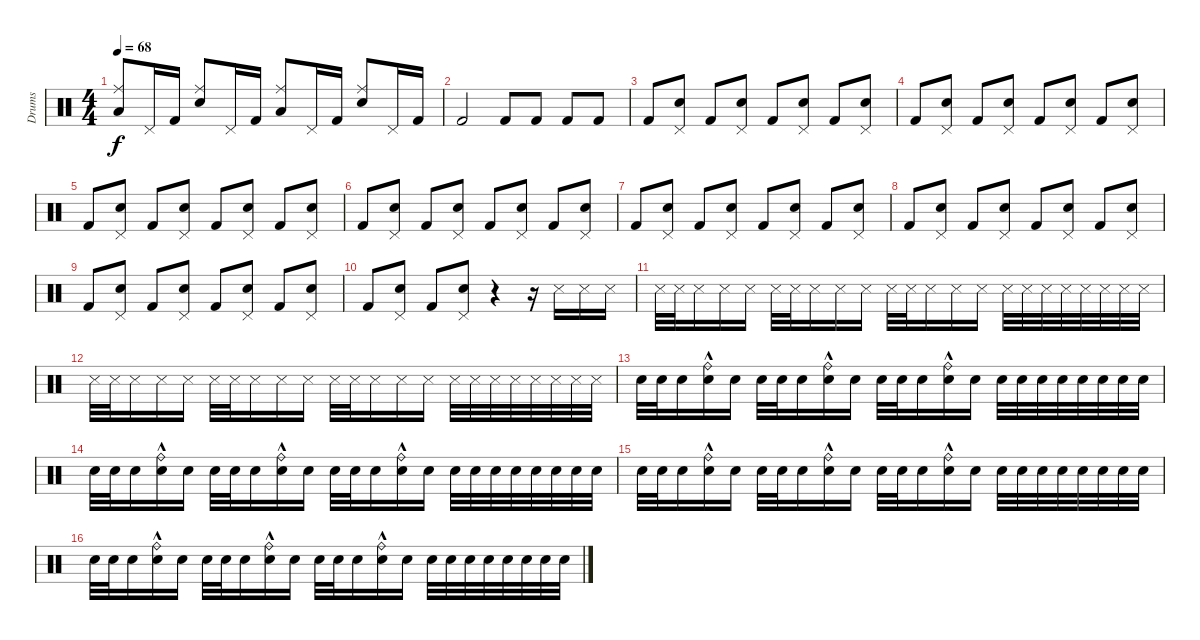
\track ("Drums" "Drums") {instrument percussion}
\staff {score}
\articulation defaults
\ts (4 4)
\tempo 68
\clef neutral
\ks c
("Low Tom (hit)" "Ride (middle)").8{dy f} "Pedal Hi-Hat (hit)".16 "Kick (hit) 2".16 ("Electric Snare (hit)" "Ride (middle)").8 "Pedal Hi-Hat (hit)".16{beam merge} "Kick (hit) 2".16 ("Low Tom (hit)" "Ride (middle)").8 "Pedal Hi-Hat (hit)".16 "Kick (hit) 2".16 ("Electric Snare (hit)" "Ride (middle)").8 "Pedal Hi-Hat (hit)".16{beam merge} "Kick (hit) 2".16 |
"Kick (hit) 2".2 "Kick (hit) 2".8 "Kick (hit) 2".8 "Kick (hit) 2".8 "Kick (hit) 2".8 |
"Kick (hit) 2".8 ("Snare (hit) 2" "Pedal Hi-Hat (hit)").8 "Kick (hit) 2".8 ("Snare (hit) 2" "Pedal Hi-Hat (hit)").8 "Kick (hit) 2".8 ("Snare (hit) 2" "Pedal Hi-Hat (hit)").8 "Kick (hit) 2".8 ("Snare (hit) 2" "Pedal Hi-Hat (hit)").8 |
"Kick (hit) 2".8 ("Snare (hit) 2" "Pedal Hi-Hat (hit)").8 "Kick (hit) 2".8 ("Snare (hit) 2" "Pedal Hi-Hat (hit)").8 "Kick (hit) 2".8 ("Snare (hit) 2" "Pedal Hi-Hat (hit)").8 "Kick (hit) 2".8 ("Snare (hit) 2" "Pedal Hi-Hat (hit)").8 |
"Kick (hit) 2".8 ("Snare (hit) 2" "Pedal Hi-Hat (hit)").8 "Kick (hit) 2".8 ("Snare (hit) 2" "Pedal Hi-Hat (hit)").8 "Kick (hit) 2".8 ("Snare (hit) 2" "Pedal Hi-Hat (hit)").8 "Kick (hit) 2".8 ("Snare (hit) 2" "Pedal Hi-Hat (hit)").8 |
"Kick (hit) 2".8 ("Snare (hit) 2" "Pedal Hi-Hat (hit)").8 "Kick (hit) 2".8 ("Snare (hit) 2" "Pedal Hi-Hat (hit)").8 "Kick (hit) 2".8 ("Snare (hit) 2" "Pedal Hi-Hat (hit)").8 "Kick (hit) 2".8 ("Snare (hit) 2" "Pedal Hi-Hat (hit)").8 |
"Kick (hit) 2".8 ("Snare (hit) 2" "Pedal Hi-Hat (hit)").8 "Kick (hit) 2".8 ("Snare (hit) 2" "Pedal Hi-Hat (hit)").8 "Kick (hit) 2".8 ("Snare (hit) 2" "Pedal Hi-Hat (hit)").8 "Kick (hit) 2".8 ("Snare (hit) 2" "Pedal Hi-Hat (hit)").8 |
"Kick (hit) 2".8 ("Snare (hit) 2" "Pedal Hi-Hat (hit)").8 "Kick (hit) 2".8 ("Snare (hit) 2" "Pedal Hi-Hat (hit)").8 "Kick (hit) 2".8 ("Snare (hit) 2" "Pedal Hi-Hat (hit)").8 "Kick (hit) 2".8 ("Snare (hit) 2" "Pedal Hi-Hat (hit)").8 |
"Kick (hit) 2".8 ("Snare (hit) 2" "Pedal Hi-Hat (hit)").8 "Kick (hit) 2".8 ("Snare (hit) 2" "Pedal Hi-Hat (hit)").8 "Kick (hit) 2".8 ("Snare (hit) 2" "Pedal Hi-Hat (hit)").8 "Kick (hit) 2".8 ("Snare (hit) 2" "Pedal Hi-Hat (hit)").8 |
"Kick (hit) 2".8 ("Snare (hit) 2" "Pedal Hi-Hat (hit)").8 "Kick (hit) 2".8 ("Snare (hit) 2" "Pedal Hi-Hat (hit)").8 r.4 r.16 "Snare (side stick) 3".16 "Snare (side stick) 3".16 "Snare (side stick) 3".16 |
"Snare (side stick) 3".32 "Snare (side stick) 3".32 "Snare (side stick) 3".16 "Snare (side stick) 3".16 "Snare (side stick) 3".16 "Snare (side stick) 3".32 "Snare (side stick) 3".32 "Snare (side stick) 3".16 "Snare (side stick) 3".16 "Snare (side stick) 3".16 "Snare (side stick) 3".32 "Snare (side stick) 3".32 "Snare (side stick) 3".16 "Snare (side stick) 3".16 "Snare (side stick) 3".16 "Snare (side stick) 3".32 "Snare (side stick) 3".32 "Snare (side stick) 3".32 "Snare (side stick) 3".32 "Snare (side stick) 3".32 "Snare (side stick) 3".32 "Snare (side stick) 3".32 "Snare (side stick) 3".32 |
"Snare (side stick) 3".32 "Snare (side stick) 3".32 "Snare (side stick) 3".16 "Snare (side stick) 3".16 "Snare (side stick) 3".16 "Snare (side stick) 3".32 "Snare (side stick) 3".32 "Snare (side stick) 3".16 "Snare (side stick) 3".16 "Snare (side stick) 3".16 "Snare (side stick) 3".32 "Snare (side stick) 3".32 "Snare (side stick) 3".16 "Snare (side stick) 3".16 "Snare (side stick) 3".16 "Snare (side stick) 3".32 "Snare (side stick) 3".32 "Snare (side stick) 3".32 "Snare (side stick) 3".32 "Snare (side stick) 3".32 "Snare (side stick) 3".32 "Snare (side stick) 3".32 "Snare (side stick) 3".32 |
"Electric Snare (hit)".32 "Electric Snare (hit)".32 "Electric Snare (hit)".16 ("Electric Snare (hit)" "Ride (bell)"{hac}).16 "Electric Snare (hit)".16 "Electric Snare (hit)".32 "Electric Snare (hit)".32 "Electric Snare (hit)".16 ("Electric Snare (hit)" "Ride (bell)"{hac}).16 "Electric Snare (hit)".16 "Electric Snare (hit)".32 "Electric Snare (hit)".32 "Electric Snare (hit)".16 ("Electric Snare (hit)" "Ride (bell)"{hac}).16 "Electric Snare (hit)".16 "Electric Snare (hit)".32 "Electric Snare (hit)".32 "Electric Snare (hit)".32 "Electric Snare (hit)".32 "Electric Snare (hit)".32 "Electric Snare (hit)".32 "Electric Snare (hit)".32 "Electric Snare (hit)".32 |
"Electric Snare (hit)".32 "Electric Snare (hit)".32 "Electric Snare (hit)".16 ("Electric Snare (hit)" "Ride (bell)"{hac}).16 "Electric Snare (hit)".16 "Electric Snare (hit)".32 "Electric Snare (hit)".32 "Electric Snare (hit)".16 ("Electric Snare (hit)" "Ride (bell)"{hac}).16 "Electric Snare (hit)".16 "Electric Snare (hit)".32 "Electric Snare (hit)".32 "Electric Snare (hit)".16 ("Electric Snare (hit)" "Ride (bell)"{hac}).16 "Electric Snare (hit)".16 "Electric Snare (hit)".32 "Electric Snare (hit)".32 "Electric Snare (hit)".32 "Electric Snare (hit)".32 "Electric Snare (hit)".32 "Electric Snare (hit)".32 "Electric Snare (hit)".32 "Electric Snare (hit)".32 |
"Electric Snare (hit)".32 "Electric Snare (hit)".32 "Electric Snare (hit)".16 ("Electric Snare (hit)" "Ride (bell)"{hac}).16 "Electric Snare (hit)".16 "Electric Snare (hit)".32 "Electric Snare (hit)".32 "Electric Snare (hit)".16 ("Electric Snare (hit)" "Ride (bell)"{hac}).16 "Electric Snare (hit)".16 "Electric Snare (hit)".32 "Electric Snare (hit)".32 "Electric Snare (hit)".16 ("Electric Snare (hit)" "Ride (bell)"{hac}).16 "Electric Snare (hit)".16 "Electric Snare (hit)".32 "Electric Snare (hit)".32 "Electric Snare (hit)".32 "Electric Snare (hit)".32 "Electric Snare (hit)".32 "Electric Snare (hit)".32 "Electric Snare (hit)".32 "Electric Snare (hit)".32 |
"Electric Snare (hit)".32 "Electric Snare (hit)".32 "Electric Snare (hit)".16 ("Electric Snare (hit)" "Ride (bell)"{hac}).16 "Electric Snare (hit)".16 "Electric Snare (hit)".32 "Electric Snare (hit)".32 "Electric Snare (hit)".16 ("Electric Snare (hit)" "Ride (bell)"{hac}).16 "Electric Snare (hit)".16 "Electric Snare (hit)".32 "Electric Snare (hit)".32 "Electric Snare (hit)".16 ("Electric Snare (hit)" "Ride (bell)"{hac}).16 "Electric Snare (hit)".16 "Electric Snare (hit)".32 "Electric Snare (hit)".32 "Electric Snare (hit)".32 "Electric Snare (hit)".32 "Electric Snare (hit)".32 "Electric Snare (hit)".32 "Electric Snare (hit)".32 "Electric Snare (hit)".32
